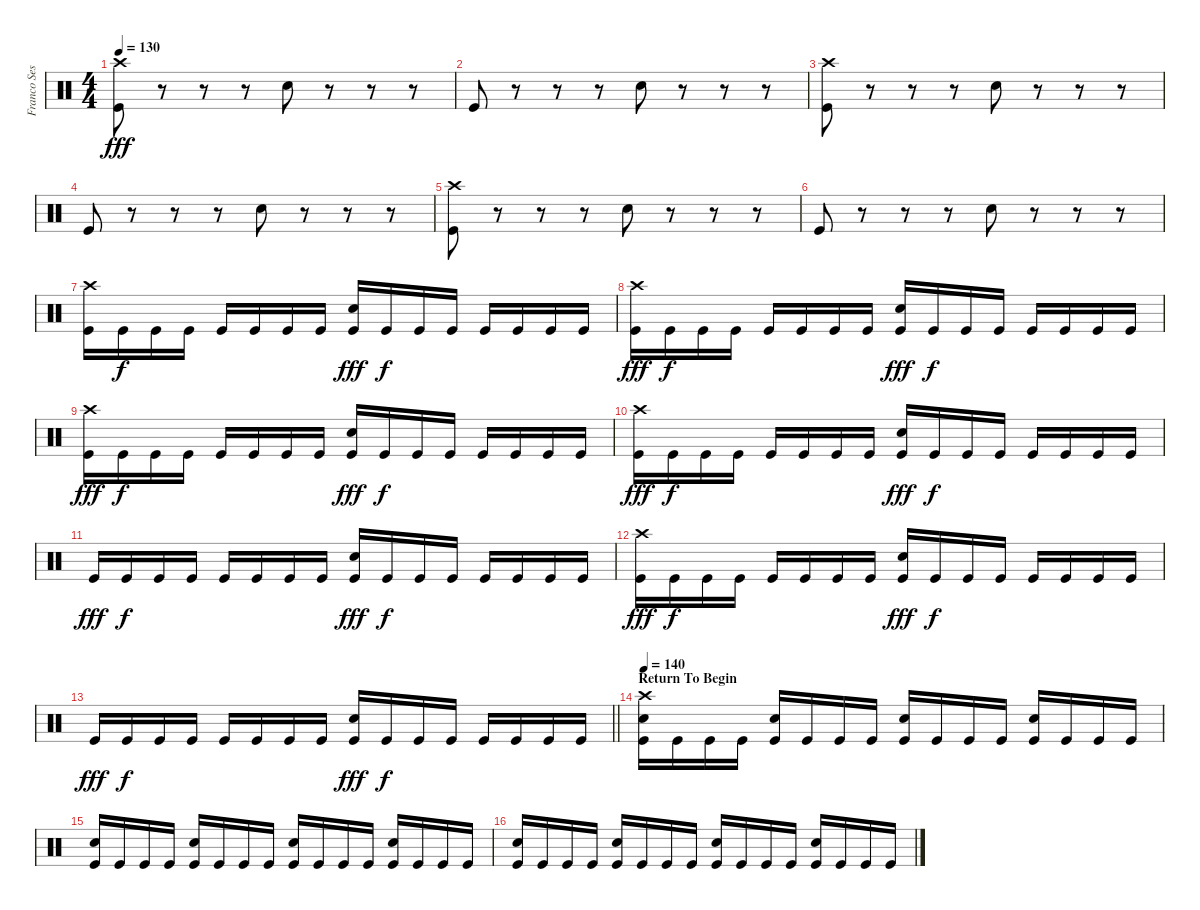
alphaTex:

\track ("Franco Sesa" "Franco Ses") {instrument percussion}
\staff {score}
\articulation defaults
\ts (4 4)
\tempo 130
\clef neutral
\ks c
("Crash high (hit)" "Kick (hit)").8{dy fff} r.8 r.8 r.8 "Electric Snare (hit)".8 r.8 r.8 r.8 |
"Kick (hit)".8 r.8 r.8 r.8 "Electric Snare (hit)".8 r.8 r.8 r.8 |
("Crash high (hit)" "Kick (hit)").8 r.8 r.8 r.8 "Electric Snare (hit)".8 r.8 r.8 r.8 |
"Kick (hit)".8 r.8 r.8 r.8 "Electric Snare (hit)".8 r.8 r.8 r.8 |
("Crash high (hit)" "Kick (hit)").8 r.8 r.8 r.8 "Electric Snare (hit)".8 r.8 r.8 r.8 |
"Kick (hit)".8 r.8 r.8 r.8 "Electric Snare (hit)".8 r.8 r.8 r.8 |
("Crash high (hit)" "Kick (hit)").16 "Kick (hit)".16{dy f} "Kick (hit)".16 "Kick (hit)".16 "Kick (hit)".16 "Kick (hit)".16 "Kick (hit)".16 "Kick (hit)".16 ("Electric Snare (hit)" "Kick (hit)").16{dy fff} "Kick (hit)".16{dy f} "Kick (hit)".16 "Kick (hit)".16 "Kick (hit)".16 "Kick (hit)".16 "Kick (hit)".16 "Kick (hit)".16 |
("Crash high (hit)" "Kick (hit)").16{dy fff} "Kick (hit)".16{dy f} "Kick (hit)".16 "Kick (hit)".16 "Kick (hit)".16 "Kick (hit)".16 "Kick (hit)".16 "Kick (hit)".16 ("Electric Snare (hit)" "Kick (hit)").16{dy fff} "Kick (hit)".16{dy f} "Kick (hit)".16 "Kick (hit)".16 "Kick (hit)".16 "Kick (hit)".16 "Kick (hit)".16 "Kick (hit)".16 |
("Crash high (hit)" "Kick (hit)").16{dy fff} "Kick (hit)".16{dy f} "Kick (hit)".16 "Kick (hit)".16 "Kick (hit)".16 "Kick (hit)".16 "Kick (hit)".16 "Kick (hit)".16 ("Electric Snare (hit)" "Kick (hit)").16{dy fff} "Kick (hit)".16{dy f} "Kick (hit)".16 "Kick (hit)".16 "Kick (hit)".16 "Kick (hit)".16 "Kick (hit)".16 "Kick (hit)".16 |
("Crash high (hit)" "Kick (hit)").16{dy fff} "Kick (hit)".16{dy f} "Kick (hit)".16 "Kick (hit)".16 "Kick (hit)".16 "Kick (hit)".16 "Kick (hit)".16 "Kick (hit)".16 ("Electric Snare (hit)" "Kick (hit)").16{dy fff} "Kick (hit)".16{dy f} "Kick (hit)".16 "Kick (hit)".16 "Kick (hit)".16 "Kick (hit)".16 "Kick (hit)".16 "Kick (hit)".16 |
"Kick (hit)".16{dy fff} "Kick (hit)".16{dy f} "Kick (hit)".16 "Kick (hit)".16 "Kick (hit)".16 "Kick (hit)".16 "Kick (hit)".16 "Kick (hit)".16 ("Electric Snare (hit)" "Kick (hit)").16{dy fff} "Kick (hit)".16{dy f} "Kick (hit)".16 "Kick (hit)".16 "Kick (hit)".16 "Kick (hit)".16 "Kick (hit)".16 "Kick (hit)".16 |
("Crash high (hit)" "Kick (hit)").16{dy fff} "Kick (hit)".16{dy f} "Kick (hit)".16 "Kick (hit)".16 "Kick (hit)".16 "Kick (hit)".16 "Kick (hit)".16 "Kick (hit)".16 ("Electric Snare (hit)" "Kick (hit)").16{dy fff} "Kick (hit)".16{dy f} "Kick (hit)".16 "Kick (hit)".16 "Kick (hit)".16 "Kick (hit)".16 "Kick (hit)".16 "Kick (hit)".16 |
\barLineRight lightlight "Kick (hit)".16{dy fff} "Kick (hit)".16{dy f} "Kick (hit)".16 "Kick (hit)".16 "Kick (hit)".16 "Kick (hit)".16 "Kick (hit)".16 "Kick (hit)".16
("Electric Snare (hit)" "Kick (hit)").16{dy fff} "Kick (hit)".16{dy f} "Kick (hit)".16 "Kick (hit)".16 "Kick (hit)".16 "Kick (hit)".16 "Kick (hit)".16 "Kick (hit)".16 |
\section ("" "Return To Begin")
\tempo 140
("Crash high (hit)" "Electric Snare (hit)" "Kick (hit)").16 "Kick (hit)".16 "Kick (hit)".16 "Kick (hit)".16 ("Electric Snare (hit)" "Kick (hit)").16 "Kick (hit)".16 "Kick (hit)".16 "Kick (hit)".16 ("Electric Snare (hit)" "Kick (hit)").16 "Kick (hit)".16 "Kick (hit)".16 "Kick (hit)".16 ("Electric Snare (hit)" "Kick (hit)").16 "Kick (hit)".16 "Kick (hit)".16 "Kick (hit)".16 |
("Electric Snare (hit)" "Kick (hit)").16 "Kick (hit)".16 "Kick (hit)".16 "Kick (hit)".16 ("Electric Snare (hit)" "Kick (hit)").16 "Kick (hit)".16 "Kick (hit)".16 "Kick (hit)".16 ("Electric Snare (hit)" "Kick (hit)").16 "Kick (hit)".16 "Kick (hit)".16 "Kick (hit)".16 ("Electric Snare (hit)" "Kick (hit)").16 "Kick (hit)".16 "Kick (hit)".16 "Kick (hit)".16 |
("Electric Snare (hit)" "Kick (hit)").16 "Kick (hit)".16 "Kick (hit)".16 "Kick (hit)".16 ("Electric Snare (hit)" "Kick (hit)").16 "Kick (hit)".16 "Kick (hit)".16 "Kick (hit)".16 ("Electric Snare (hit)" "Kick (hit)").16 "Kick (hit)".16 "Kick (hit)".16 "Kick (hit)".16 ("Electric Snare (hit)" "Kick (hit)").16 "Kick (hit)".16 "Kick (hit)".16 "Kick (hit)".16
